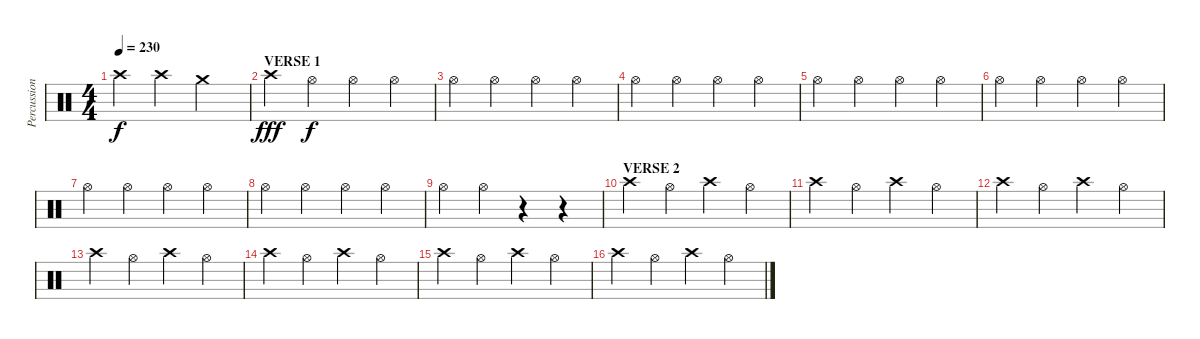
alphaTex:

\track ("Percussions" "Percussion") {instrument percussion}
\staff {score}
\articulation defaults
\ts (4 4)
\tempo 230
\clef neutral
\ks c "Crash high (hit)".4{dy f} "Crash high (hit)".4 "Crash medium (hit)".2
|
\section ("" "VERSE 1")
"Crash high (hit)".4{dy fff} "Hi-Hat (open)".4{dy f} "Hi-Hat (open)".4 "Hi-Hat (open)".4 |
"Hi-Hat (open)".4 "Hi-Hat (open)".4 "Hi-Hat (open)".4 "Hi-Hat (open)".4 |
"Hi-Hat (open)".4 "Hi-Hat (open)".4 "Hi-Hat (open)".4 "Hi-Hat (open)".4 |
"Hi-Hat (open)".4 "Hi-Hat (open)".4 "Hi-Hat (open)".4 "Hi-Hat (open)".4 |
"Hi-Hat (open)".4 "Hi-Hat (open)".4 "Hi-Hat (open)".4 "Hi-Hat (open)".4 |
"Hi-Hat (open)".4 "Hi-Hat (open)".4 "Hi-Hat (open)".4 "Hi-Hat (open)".4 |
"Hi-Hat (open)".4 "Hi-Hat (open)".4 "Hi-Hat (open)".4 "Hi-Hat (open)".4 |
"Hi-Hat (open)".4 "Hi-Hat (open)".4 r.4 r.4 |
\section ("" "VERSE 2")
"Crash high (hit)".4 "Hi-Hat (open)".4 "Crash high (hit)".4 "Hi-Hat (open)".4 |
"Crash high (hit)".4 "Hi-Hat (open)".4 "Crash high (hit)".4 "Hi-Hat (open)".4 |
"Crash high (hit)".4 "Hi-Hat (open)".4 "Crash high (hit)".4 "Hi-Hat (open)".4 |
"Crash high (hit)".4 "Hi-Hat (open)".4 "Crash high (hit)".4 "Hi-Hat (open)".4 |
"Crash high (hit)".4 "Hi-Hat (open)".4 "Crash high (hit)".4 "Hi-Hat (open)".4 |
"Crash high (hit)".4 "Hi-Hat (open)".4 "Crash high (hit)".4 "Hi-Hat (open)".4 |
"Crash high (hit)".4 "Hi-Hat (open)".4 "Crash high (hit)".4 "Hi-Hat (open)".4
